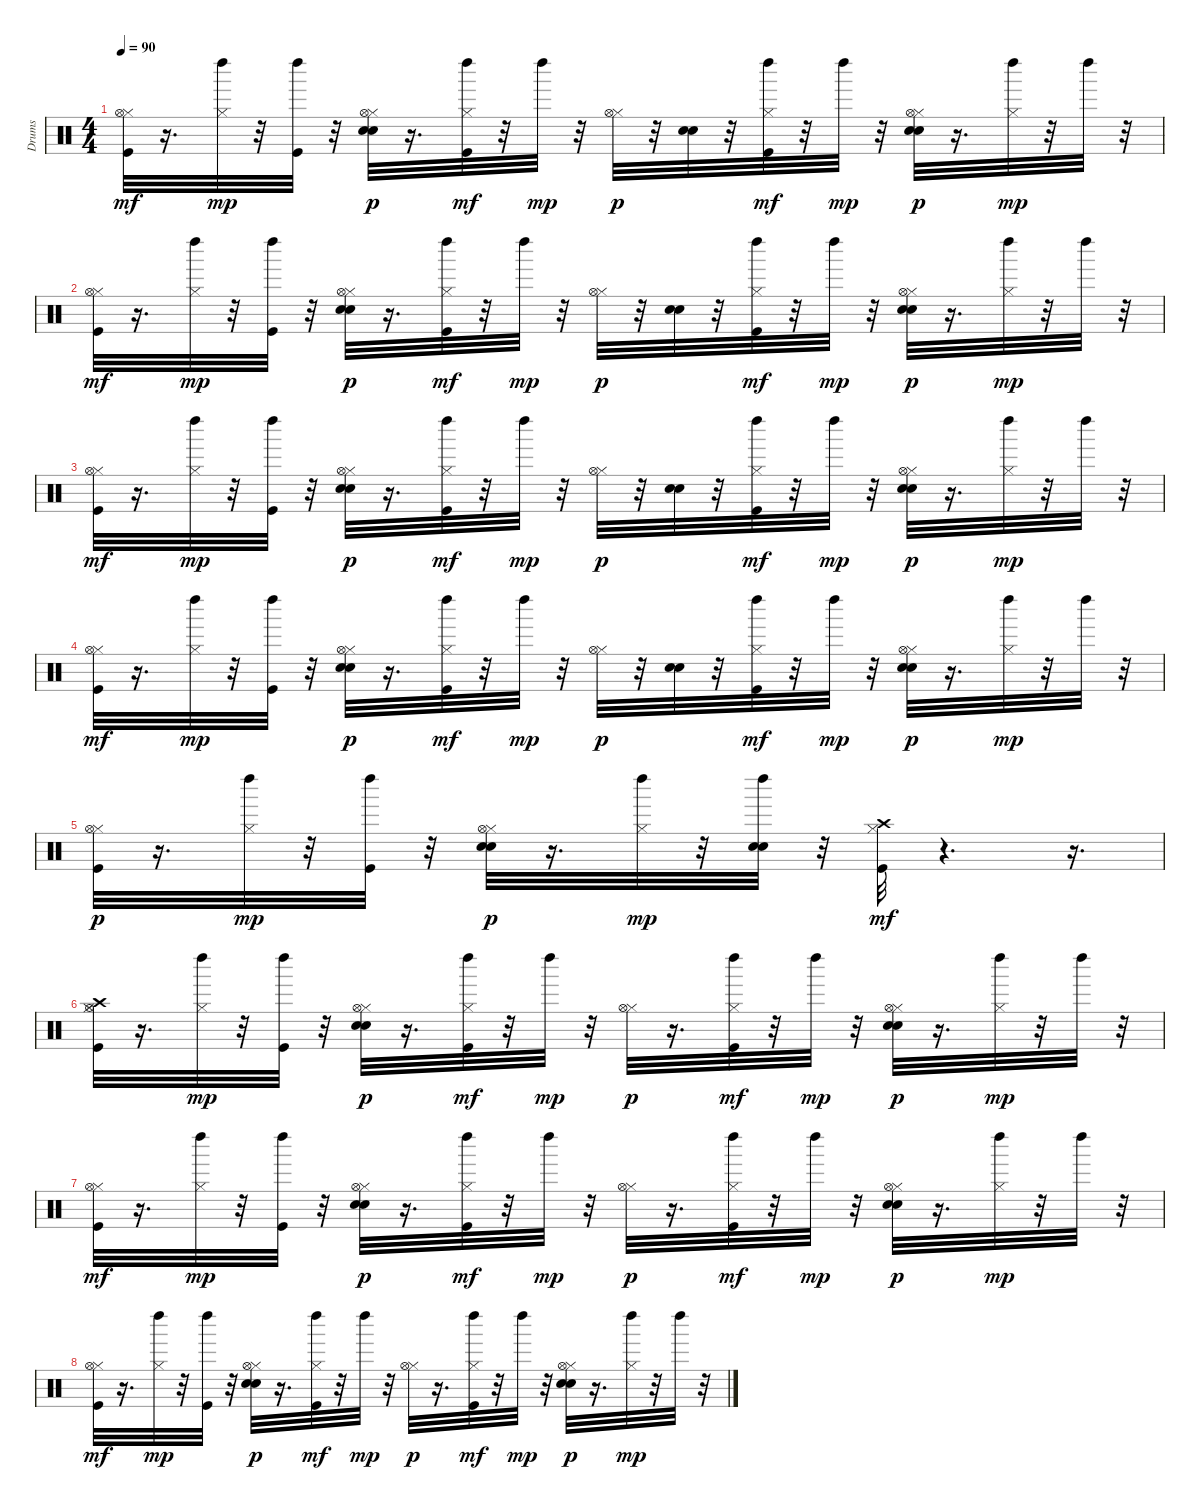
\track ("Drums" "Drums") {instrument percussion}
\staff {score}
\articulation defaults
\ts (4 4)
\tempo 90
\clef neutral
\ks c
("Hi-Hat (closed)" "Hi-Hat (open)" "Kick (hit)").32{dy mf} r.16{d} ("Hi-Hat (closed)" "Left Maraca (hit)").32{dy mp} r.32 ("Kick (hit)" "Left Maraca (hit)").32 r.32 ("Snare (hit) 2" "Electric Snare (hit)" "Hi-Hat (closed)" "Hi-Hat (open)").32{dy p} r.16{d} ("Hi-Hat (closed)" "Left Maraca (hit)" "Kick (hit)").32{dy mf} r.32 "Left Maraca (hit)".32{dy mp} r.32 ("Hi-Hat (closed)" "Hi-Hat (open)").32{dy p} r.32 ("Electric Snare (hit)" "Snare (hit) 2").32 r.32 ("Hi-Hat (closed)" "Left Maraca (hit)" "Kick (hit)").32{dy mf} r.32 "Left Maraca (hit)".32{dy mp} r.32 ("Snare (hit) 2" "Electric Snare (hit)" "Hi-Hat (closed)" "Hi-Hat (open)").32{dy p} r.16{d} ("Hi-Hat (closed)" "Left Maraca (hit)").32{dy mp} r.32 "Left Maraca (hit)".32 r.32 |
("Hi-Hat (closed)" "Hi-Hat (open)" "Kick (hit)").32{dy mf} r.16{d} ("Hi-Hat (closed)" "Left Maraca (hit)").32{dy mp} r.32 ("Kick (hit)" "Left Maraca (hit)").32 r.32 ("Snare (hit) 2" "Electric Snare (hit)" "Hi-Hat (closed)" "Hi-Hat (open)").32{dy p} r.16{d} ("Hi-Hat (closed)" "Left Maraca (hit)" "Kick (hit)").32{dy mf} r.32 "Left Maraca (hit)".32{dy mp} r.32 ("Hi-Hat (closed)" "Hi-Hat (open)").32{dy p} r.32 ("Electric Snare (hit)" "Snare (hit) 2").32 r.32 ("Hi-Hat (closed)" "Left Maraca (hit)" "Kick (hit)").32{dy mf} r.32 "Left Maraca (hit)".32{dy mp} r.32 ("Snare (hit) 2" "Electric Snare (hit)" "Hi-Hat (closed)" "Hi-Hat (open)").32{dy p} r.16{d} ("Hi-Hat (closed)" "Left Maraca (hit)").32{dy mp} r.32 "Left Maraca (hit)".32 r.32 |
("Hi-Hat (closed)" "Hi-Hat (open)" "Kick (hit)").32{dy mf} r.16{d} ("Hi-Hat (closed)" "Left Maraca (hit)").32{dy mp} r.32 ("Kick (hit)" "Left Maraca (hit)").32 r.32 ("Snare (hit) 2" "Electric Snare (hit)" "Hi-Hat (closed)" "Hi-Hat (open)").32{dy p} r.16{d} ("Hi-Hat (closed)" "Left Maraca (hit)" "Kick (hit)").32{dy mf} r.32 "Left Maraca (hit)".32{dy mp} r.32 ("Hi-Hat (closed)" "Hi-Hat (open)").32{dy p} r.32 ("Electric Snare (hit)" "Snare (hit) 2").32 r.32 ("Hi-Hat (closed)" "Left Maraca (hit)" "Kick (hit)").32{dy mf} r.32 "Left Maraca (hit)".32{dy mp} r.32 ("Snare (hit) 2" "Electric Snare (hit)" "Hi-Hat (closed)" "Hi-Hat (open)").32{dy p} r.16{d} ("Hi-Hat (closed)" "Left Maraca (hit)").32{dy mp} r.32 "Left Maraca (hit)".32 r.32 |
("Hi-Hat (closed)" "Hi-Hat (open)" "Kick (hit)").32{dy mf} r.16{d} ("Hi-Hat (closed)" "Left Maraca (hit)").32{dy mp} r.32 ("Kick (hit)" "Left Maraca (hit)").32 r.32 ("Snare (hit) 2" "Electric Snare (hit)" "Hi-Hat (closed)" "Hi-Hat (open)").32{dy p} r.16{d} ("Hi-Hat (closed)" "Left Maraca (hit)" "Kick (hit)").32{dy mf} r.32 "Left Maraca (hit)".32{dy mp} r.32 ("Hi-Hat (closed)" "Hi-Hat (open)").32{dy p} r.32 ("Electric Snare (hit)" "Snare (hit) 2").32 r.32 ("Hi-Hat (closed)" "Left Maraca (hit)" "Kick (hit)").32{dy mf} r.32 "Left Maraca (hit)".32{dy mp} r.32 ("Snare (hit) 2" "Electric Snare (hit)" "Hi-Hat (closed)" "Hi-Hat (open)").32{dy p} r.16{d} ("Hi-Hat (closed)" "Left Maraca (hit)").32{dy mp} r.32 "Left Maraca (hit)".32 r.32 |
("Kick (hit)" "Hi-Hat (closed)" "Hi-Hat (open)").32{dy p} r.16{d} ("Hi-Hat (closed)" "Left Maraca (hit)").32{dy mp} r.32 ("Kick (hit)" "Left Maraca (hit)").32 r.32 ("Snare (hit) 2" "Electric Snare (hit)" "Hi-Hat (closed)" "Hi-Hat (open)").32{dy p} r.16{d} ("Hi-Hat (closed)" "Left Maraca (hit)").32{dy mp} r.32 ("Snare (hit) 2" "Electric Snare (hit)" "Left Maraca (hit)").32 r.32 ("Kick (hit)" "Hi-Hat (closed)" "Crash high (hit)").32{dy mf} r.4{d} r.16{d} |
("Crash high (hit)" "Hi-Hat (closed)" "Hi-Hat (open)" "Kick (hit)").32 r.16{d} ("Hi-Hat (closed)" "Left Maraca (hit)").32{dy mp} r.32 ("Kick (hit)" "Left Maraca (hit)").32 r.32 ("Snare (hit) 2" "Electric Snare (hit)" "Hi-Hat (closed)" "Hi-Hat (open)").32{dy p} r.16{d} ("Hi-Hat (closed)" "Left Maraca (hit)" "Kick (hit)").32{dy mf} r.32 "Left Maraca (hit)".32{dy mp} r.32 ("Hi-Hat (closed)" "Hi-Hat (open)").32{dy p} r.16{d} ("Hi-Hat (closed)" "Left Maraca (hit)" "Kick (hit)").32{dy mf} r.32 "Left Maraca (hit)".32{dy mp} r.32 ("Snare (hit) 2" "Electric Snare (hit)" "Hi-Hat (closed)" "Hi-Hat (open)").32{dy p} r.16{d} ("Hi-Hat (closed)" "Left Maraca (hit)").32{dy mp} r.32 "Left Maraca (hit)".32 r.32 |
("Hi-Hat (closed)" "Hi-Hat (open)" "Kick (hit)").32{dy mf} r.16{d} ("Hi-Hat (closed)" "Left Maraca (hit)").32{dy mp} r.32 ("Kick (hit)" "Left Maraca (hit)").32 r.32 ("Snare (hit) 2" "Electric Snare (hit)" "Hi-Hat (closed)" "Hi-Hat (open)").32{dy p} r.16{d} ("Hi-Hat (closed)" "Left Maraca (hit)" "Kick (hit)").32{dy mf} r.32 "Left Maraca (hit)".32{dy mp} r.32 ("Hi-Hat (closed)" "Hi-Hat (open)").32{dy p} r.16{d} ("Hi-Hat (closed)" "Left Maraca (hit)" "Kick (hit)").32{dy mf} r.32 "Left Maraca (hit)".32{dy mp} r.32 ("Snare (hit) 2" "Electric Snare (hit)" "Hi-Hat (closed)" "Hi-Hat (open)").32{dy p} r.16{d} ("Hi-Hat (closed)" "Left Maraca (hit)").32{dy mp} r.32 "Left Maraca (hit)".32 r.32 |
("Hi-Hat (closed)" "Hi-Hat (open)" "Kick (hit)").32{dy mf} r.16{d} ("Hi-Hat (closed)" "Left Maraca (hit)").32{dy mp} r.32 ("Kick (hit)" "Left Maraca (hit)").32 r.32 ("Snare (hit) 2" "Electric Snare (hit)" "Hi-Hat (closed)" "Hi-Hat (open)").32{dy p} r.16{d} ("Hi-Hat (closed)" "Left Maraca (hit)" "Kick (hit)").32{dy mf} r.32 "Left Maraca (hit)".32{dy mp} r.32 ("Hi-Hat (closed)" "Hi-Hat (open)").32{dy p} r.16{d} ("Hi-Hat (closed)" "Left Maraca (hit)" "Kick (hit)").32{dy mf} r.32 "Left Maraca (hit)".32{dy mp} r.32 ("Snare (hit) 2" "Electric Snare (hit)" "Hi-Hat (closed)" "Hi-Hat (open)").32{dy p} r.16{d} ("Hi-Hat (closed)" "Left Maraca (hit)").32{dy mp} r.32 "Left Maraca (hit)".32 r.32
